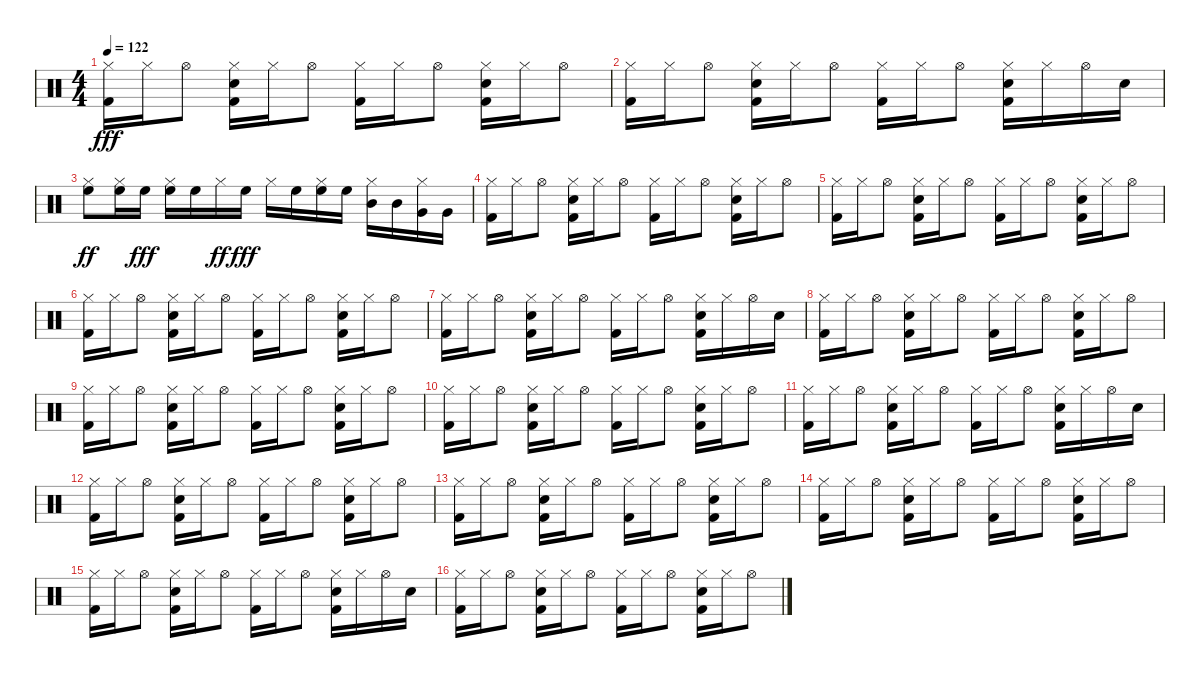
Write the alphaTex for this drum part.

\track "" {mute instrument percussion}
\staff {score}
\articulation defaults
\ts (4 4)
\tempo 122
\clef neutral
\ks c
("Kick (hit) 2" "Hi-Hat (closed)").16{dy fff} "Hi-Hat (closed)".16 "Hi-Hat (open)".8 ("Kick (hit) 2" "Snare (hit) 2" "Hi-Hat (closed)").16 "Hi-Hat (closed)".16 "Hi-Hat (open)".8 ("Kick (hit) 2" "Hi-Hat (closed)").16 "Hi-Hat (closed)".16 "Hi-Hat (open)".8 ("Kick (hit) 2" "Snare (hit) 2" "Hi-Hat (closed)").16 "Hi-Hat (closed)".16 "Hi-Hat (open)".8 |
("Kick (hit) 2" "Hi-Hat (closed)").16 "Hi-Hat (closed)".16 "Hi-Hat (open)".8 ("Kick (hit) 2" "Snare (hit) 2" "Hi-Hat (closed)").16 "Hi-Hat (closed)".16 "Hi-Hat (open)".8 ("Kick (hit) 2" "Hi-Hat (closed)").16 "Hi-Hat (closed)".16 "Hi-Hat (open)".8 ("Kick (hit) 2" "Snare (hit) 2" "Hi-Hat (closed)").16 "Hi-Hat (closed)".16 "Hi-Hat (open)".16 "Snare (hit) 2".16 |
("Hi-Hat (closed)" "High Floor Tom (hit)").8{dy ff} ("Hi-Hat (closed)" "High Floor Tom (hit)").16 "High Floor Tom (hit)".16{dy fff} ("Hi-Hat (closed)" "High Floor Tom (hit)").16 "High Floor Tom (hit)".16 "Hi-Hat (closed)".16{dy ff} "High Floor Tom (hit)".16{dy fff} "Hi-Hat (closed)".16 "High Floor Tom (hit)".16 ("Hi-Hat (closed)" "High Floor Tom (hit)").16 "High Floor Tom (hit)".16 ("Hi-Hat (closed)" "Mid Tom (hit)").16 "Mid Tom (hit)".16 ("Hi-Hat (closed)" "Very Low Tom (hit)").16 "Very Low Tom (hit)".16 |
("Kick (hit) 2" "Hi-Hat (closed)").16 "Hi-Hat (closed)".16 "Hi-Hat (open)".8 ("Kick (hit) 2" "Snare (hit) 2" "Hi-Hat (closed)").16 "Hi-Hat (closed)".16 "Hi-Hat (open)".8 ("Kick (hit) 2" "Hi-Hat (closed)").16 "Hi-Hat (closed)".16 "Hi-Hat (open)".8 ("Kick (hit) 2" "Snare (hit) 2" "Hi-Hat (closed)").16 "Hi-Hat (closed)".16 "Hi-Hat (open)".8 |
("Kick (hit) 2" "Hi-Hat (closed)").16 "Hi-Hat (closed)".16 "Hi-Hat (open)".8 ("Kick (hit) 2" "Snare (hit) 2" "Hi-Hat (closed)").16 "Hi-Hat (closed)".16 "Hi-Hat (open)".8 ("Kick (hit) 2" "Hi-Hat (closed)").16 "Hi-Hat (closed)".16 "Hi-Hat (open)".8 ("Kick (hit) 2" "Snare (hit) 2" "Hi-Hat (closed)").16 "Hi-Hat (closed)".16 "Hi-Hat (open)".8 |
("Kick (hit) 2" "Hi-Hat (closed)").16 "Hi-Hat (closed)".16 "Hi-Hat (open)".8 ("Kick (hit) 2" "Snare (hit) 2" "Hi-Hat (closed)").16 "Hi-Hat (closed)".16 "Hi-Hat (open)".8 ("Kick (hit) 2" "Hi-Hat (closed)").16 "Hi-Hat (closed)".16 "Hi-Hat (open)".8 ("Kick (hit) 2" "Snare (hit) 2" "Hi-Hat (closed)").16 "Hi-Hat (closed)".16 "Hi-Hat (open)".8 |
("Kick (hit) 2" "Hi-Hat (closed)").16 "Hi-Hat (closed)".16 "Hi-Hat (open)".8 ("Kick (hit) 2" "Snare (hit) 2" "Hi-Hat (closed)").16 "Hi-Hat (closed)".16 "Hi-Hat (open)".8 ("Kick (hit) 2" "Hi-Hat (closed)").16 "Hi-Hat (closed)".16 "Hi-Hat (open)".8 ("Kick (hit) 2" "Snare (hit) 2" "Hi-Hat (closed)").16 "Hi-Hat (closed)".16 "Hi-Hat (open)".16 "Snare (hit) 2".16 |
("Kick (hit) 2" "Hi-Hat (closed)").16 "Hi-Hat (closed)".16 "Hi-Hat (open)".8 ("Kick (hit) 2" "Snare (hit) 2" "Hi-Hat (closed)").16 "Hi-Hat (closed)".16 "Hi-Hat (open)".8 ("Kick (hit) 2" "Hi-Hat (closed)").16 "Hi-Hat (closed)".16 "Hi-Hat (open)".8 ("Kick (hit) 2" "Snare (hit) 2" "Hi-Hat (closed)").16 "Hi-Hat (closed)".16 "Hi-Hat (open)".8 |
("Kick (hit) 2" "Hi-Hat (closed)").16 "Hi-Hat (closed)".16 "Hi-Hat (open)".8 ("Kick (hit) 2" "Snare (hit) 2" "Hi-Hat (closed)").16 "Hi-Hat (closed)".16 "Hi-Hat (open)".8 ("Kick (hit) 2" "Hi-Hat (closed)").16 "Hi-Hat (closed)".16 "Hi-Hat (open)".8 ("Kick (hit) 2" "Snare (hit) 2" "Hi-Hat (closed)").16 "Hi-Hat (closed)".16 "Hi-Hat (open)".8 |
("Kick (hit) 2" "Hi-Hat (closed)").16 "Hi-Hat (closed)".16 "Hi-Hat (open)".8 ("Kick (hit) 2" "Snare (hit) 2" "Hi-Hat (closed)").16 "Hi-Hat (closed)".16 "Hi-Hat (open)".8 ("Kick (hit) 2" "Hi-Hat (closed)").16 "Hi-Hat (closed)".16 "Hi-Hat (open)".8 ("Kick (hit) 2" "Snare (hit) 2" "Hi-Hat (closed)").16 "Hi-Hat (closed)".16 "Hi-Hat (open)".8 |
("Kick (hit) 2" "Hi-Hat (closed)").16 "Hi-Hat (closed)".16 "Hi-Hat (open)".8 ("Kick (hit) 2" "Snare (hit) 2" "Hi-Hat (closed)").16 "Hi-Hat (closed)".16 "Hi-Hat (open)".8 ("Kick (hit) 2" "Hi-Hat (closed)").16 "Hi-Hat (closed)".16 "Hi-Hat (open)".8 ("Kick (hit) 2" "Snare (hit) 2" "Hi-Hat (closed)").16 "Hi-Hat (closed)".16 "Hi-Hat (open)".16 "Snare (hit) 2".16 |
("Kick (hit) 2" "Hi-Hat (closed)").16 "Hi-Hat (closed)".16 "Hi-Hat (open)".8 ("Kick (hit) 2" "Snare (hit) 2" "Hi-Hat (closed)").16 "Hi-Hat (closed)".16 "Hi-Hat (open)".8 ("Kick (hit) 2" "Hi-Hat (closed)").16 "Hi-Hat (closed)".16 "Hi-Hat (open)".8 ("Kick (hit) 2" "Snare (hit) 2" "Hi-Hat (closed)").16 "Hi-Hat (closed)".16 "Hi-Hat (open)".8 |
("Kick (hit) 2" "Hi-Hat (closed)").16 "Hi-Hat (closed)".16 "Hi-Hat (open)".8 ("Kick (hit) 2" "Snare (hit) 2" "Hi-Hat (closed)").16 "Hi-Hat (closed)".16 "Hi-Hat (open)".8 ("Kick (hit) 2" "Hi-Hat (closed)").16 "Hi-Hat (closed)".16 "Hi-Hat (open)".8 ("Kick (hit) 2" "Snare (hit) 2" "Hi-Hat (closed)").16 "Hi-Hat (closed)".16 "Hi-Hat (open)".8 |
("Kick (hit) 2" "Hi-Hat (closed)").16 "Hi-Hat (closed)".16 "Hi-Hat (open)".8 ("Kick (hit) 2" "Snare (hit) 2" "Hi-Hat (closed)").16 "Hi-Hat (closed)".16 "Hi-Hat (open)".8 ("Kick (hit) 2" "Hi-Hat (closed)").16 "Hi-Hat (closed)".16 "Hi-Hat (open)".8 ("Kick (hit) 2" "Snare (hit) 2" "Hi-Hat (closed)").16 "Hi-Hat (closed)".16 "Hi-Hat (open)".8 |
("Kick (hit) 2" "Hi-Hat (closed)").16 "Hi-Hat (closed)".16 "Hi-Hat (open)".8 ("Kick (hit) 2" "Snare (hit) 2" "Hi-Hat (closed)").16 "Hi-Hat (closed)".16 "Hi-Hat (open)".8 ("Kick (hit) 2" "Hi-Hat (closed)").16 "Hi-Hat (closed)".16 "Hi-Hat (open)".8 ("Kick (hit) 2" "Snare (hit) 2" "Hi-Hat (closed)").16 "Hi-Hat (closed)".16 "Hi-Hat (open)".16 "Snare (hit) 2".16 |
("Kick (hit) 2" "Hi-Hat (closed)").16 "Hi-Hat (closed)".16 "Hi-Hat (open)".8 ("Kick (hit) 2" "Snare (hit) 2" "Hi-Hat (closed)").16 "Hi-Hat (closed)".16 "Hi-Hat (open)".8 ("Kick (hit) 2" "Hi-Hat (closed)").16 "Hi-Hat (closed)".16 "Hi-Hat (open)".8 ("Kick (hit) 2" "Snare (hit) 2" "Hi-Hat (closed)").16 "Hi-Hat (closed)".16 "Hi-Hat (open)".8
